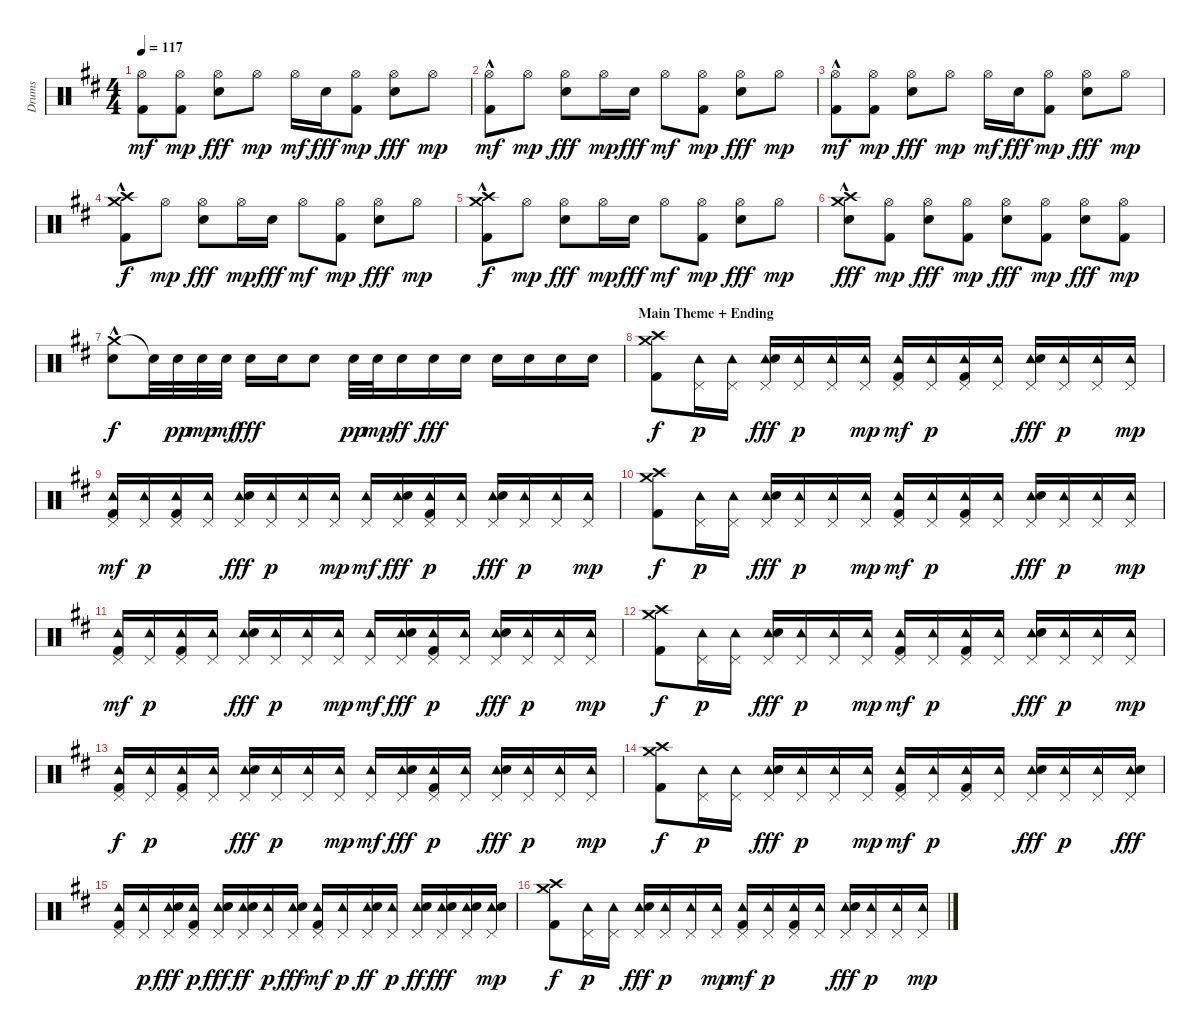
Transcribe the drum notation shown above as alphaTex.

\track ("Drums" "Drums") {instrument percussion}
\staff {score}
\articulation defaults
\ts (4 4)
\tempo 117
\clef neutral
\ks d
("Hi-Hat (open)" "Kick (hit) 2").8{dy mf} ("Hi-Hat (open)" "Kick (hit) 2").8{dy mp} ("Hi-Hat (open)" "Electric Snare (hit)").8{dy fff} "Hi-Hat (open)".8{dy mp} "Hi-Hat (open)".16{dy mf} "Electric Snare (hit)".16{dy fff} ("Hi-Hat (open)" "Kick (hit) 2").8{dy mp} ("Hi-Hat (open)" "Electric Snare (hit)").8{dy fff} "Hi-Hat (open)".8{dy mp} |
("Hi-Hat (open)" "Kick (hit) 2"{hac}).8{dy mf} "Hi-Hat (open)".8{dy mp} ("Hi-Hat (open)" "Electric Snare (hit)").8{dy fff} "Hi-Hat (open)".16{dy mp} "Electric Snare (hit)".16{dy fff} "Hi-Hat (open)".8{dy mf} ("Hi-Hat (open)" "Kick (hit) 2").8{dy mp} ("Hi-Hat (open)" "Electric Snare (hit)").8{dy fff} "Hi-Hat (open)".8{dy mp} |
("Hi-Hat (open)" "Kick (hit) 2"{hac}).8{dy mf} ("Hi-Hat (open)" "Kick (hit) 2").8{dy mp} ("Hi-Hat (open)" "Electric Snare (hit)").8{dy fff} "Hi-Hat (open)".8{dy mp} "Hi-Hat (open)".16{dy mf} "Electric Snare (hit)".16{dy fff} ("Hi-Hat (open)" "Kick (hit) 2").8{dy mp} ("Hi-Hat (open)" "Electric Snare (hit)").8{dy fff} "Hi-Hat (open)".8{dy mp} |
("Crash medium (hit)" "Crash high (hit)" "Kick (hit) 2"{hac}).8{dy f} "Hi-Hat (open)".8{dy mp} ("Hi-Hat (open)" "Electric Snare (hit)").8{dy fff} "Hi-Hat (open)".16{dy mp} "Electric Snare (hit)".16{dy fff} "Hi-Hat (open)".8{dy mf} ("Hi-Hat (open)" "Kick (hit) 2").8{dy mp} ("Hi-Hat (open)" "Electric Snare (hit)").8{dy fff} "Hi-Hat (open)".8{dy mp} |
("Crash medium (hit)" "Kick (hit) 2" "Crash high (hit)"{hac}).8{dy f} "Hi-Hat (open)".8{dy mp} ("Hi-Hat (open)" "Electric Snare (hit)").8{dy fff} "Hi-Hat (open)".16{dy mp} "Electric Snare (hit)".16{dy fff} "Hi-Hat (open)".8{dy mf} ("Hi-Hat (open)" "Kick (hit) 2").8{dy mp} ("Hi-Hat (open)" "Electric Snare (hit)").8{dy fff} "Hi-Hat (open)".8{dy mp} |
("Crash high (hit)" "Crash medium (hit)" "Electric Snare (hit)"{hac}).8{dy fff} ("Hi-Hat (open)" "Kick (hit) 2").8{dy mp} ("Hi-Hat (open)" "Electric Snare (hit)").8{dy fff} ("Hi-Hat (open)" "Kick (hit) 2").8{dy mp} ("Hi-Hat (open)" "Electric Snare (hit)").8{dy fff} ("Hi-Hat (open)" "Kick (hit) 2").8{dy mp} ("Hi-Hat (open)" "Electric Snare (hit)").8{dy fff} ("Hi-Hat (open)" "Kick (hit) 2").8{dy mp} |
("Crash medium (hit)" "Electric Snare (hit)"{hac}).8{dy f} "Snare (hit)"{t}.32 "Electric Snare (hit)".32{dy pp} "Electric Snare (hit)".32{dy mp} "Electric Snare (hit)".32{dy mf} "Electric Snare (hit)".16{dy fff} "Electric Snare (hit)".16 "Electric Snare (hit)".8 "Electric Snare (hit)".32{dy pp} "Electric Snare (hit)".32{dy mp} "Electric Snare (hit)".16{dy ff} "Electric Snare (hit)".16{dy fff} "Electric Snare (hit)".16 "Electric Snare (hit)".16 "Electric Snare (hit)".16 "Electric Snare (hit)".16 "Electric Snare (hit)".16 |
\section ("" "Main Theme + Ending")
("Crash medium (hit)" "Crash high (hit)" "Kick (hit) 2").8{dy f} ("Tambourine (hit)" "Pedal Hi-Hat (hit)").16{dy p} ("Tambourine (hit)" "Pedal Hi-Hat (hit)").16 ("Tambourine (hit)" "Pedal Hi-Hat (hit)" "Electric Snare (hit)").16{dy fff} ("Tambourine (hit)" "Pedal Hi-Hat (hit)").16{dy p} ("Tambourine (hit)" "Pedal Hi-Hat (hit)").16 ("Tambourine (hit)" "Pedal Hi-Hat (hit)").16{dy mp} ("Pedal Hi-Hat (hit)" "Tambourine (hit)" "Kick (hit) 2").16{dy mf} ("Tambourine (hit)" "Pedal Hi-Hat (hit)").16{dy p} ("Pedal Hi-Hat (hit)" "Tambourine (hit)" "Kick (hit) 2").16 ("Pedal Hi-Hat (hit)" "Tambourine (hit)").16 ("Tambourine (hit)" "Pedal Hi-Hat (hit)" "Electric Snare (hit)").16{dy fff} ("Pedal Hi-Hat (hit)" "Tambourine (hit)").16{dy p} ("Pedal Hi-Hat (hit)" "Tambourine (hit)").16 ("Tambourine (hit)" "Pedal Hi-Hat (hit)").16{dy mp} |
("Tambourine (hit)" "Pedal Hi-Hat (hit)" "Kick (hit) 2").16{dy mf} ("Tambourine (hit)" "Pedal Hi-Hat (hit)").16{dy p} ("Pedal Hi-Hat (hit)" "Tambourine (hit)" "Kick (hit) 2").16 ("Tambourine (hit)" "Pedal Hi-Hat (hit)").16 ("Pedal Hi-Hat (hit)" "Tambourine (hit)" "Electric Snare (hit)").16{dy fff} ("Pedal Hi-Hat (hit)" "Tambourine (hit)").16{dy p} ("Tambourine (hit)" "Pedal Hi-Hat (hit)").16 ("Tambourine (hit)" "Pedal Hi-Hat (hit)").16{dy mp} ("Pedal Hi-Hat (hit)" "Tambourine (hit)").16{dy mf} ("Pedal Hi-Hat (hit)" "Tambourine (hit)" "Electric Snare (hit)").16{dy fff} ("Tambourine (hit)" "Pedal Hi-Hat (hit)" "Kick (hit) 2").16{dy p} ("Tambourine (hit)" "Pedal Hi-Hat (hit)").16 ("Pedal Hi-Hat (hit)" "Tambourine (hit)" "Electric Snare (hit)").16{dy fff} ("Tambourine (hit)" "Pedal Hi-Hat (hit)").16{dy p} ("Tambourine (hit)" "Pedal Hi-Hat (hit)").16 ("Pedal Hi-Hat (hit)" "Tambourine (hit)").16{dy mp} |
("Crash high (hit)" "Crash medium (hit)" "Kick (hit) 2").8{dy f} ("Tambourine (hit)" "Pedal Hi-Hat (hit)").16{dy p} ("Pedal Hi-Hat (hit)" "Tambourine (hit)").16 ("Pedal Hi-Hat (hit)" "Tambourine (hit)" "Electric Snare (hit)").16{dy fff} ("Pedal Hi-Hat (hit)" "Tambourine (hit)").16{dy p} ("Pedal Hi-Hat (hit)" "Tambourine (hit)").16 ("Pedal Hi-Hat (hit)" "Tambourine (hit)").16{dy mp} ("Pedal Hi-Hat (hit)" "Tambourine (hit)" "Kick (hit) 2").16{dy mf} ("Pedal Hi-Hat (hit)" "Tambourine (hit)").16{dy p} ("Pedal Hi-Hat (hit)" "Tambourine (hit)" "Kick (hit) 2").16 ("Pedal Hi-Hat (hit)" "Tambourine (hit)").16 ("Pedal Hi-Hat (hit)" "Tambourine (hit)" "Electric Snare (hit)").16{dy fff} ("Tambourine (hit)" "Pedal Hi-Hat (hit)").16{dy p} ("Tambourine (hit)" "Pedal Hi-Hat (hit)").16 ("Pedal Hi-Hat (hit)" "Tambourine (hit)").16{dy mp} |
("Tambourine (hit)" "Pedal Hi-Hat (hit)" "Kick (hit) 2").16{dy mf} ("Tambourine (hit)" "Pedal Hi-Hat (hit)").16{dy p} ("Pedal Hi-Hat (hit)" "Tambourine (hit)" "Kick (hit) 2").16 ("Tambourine (hit)" "Pedal Hi-Hat (hit)").16 ("Tambourine (hit)" "Pedal Hi-Hat (hit)" "Electric Snare (hit)").16{dy fff} ("Pedal Hi-Hat (hit)" "Tambourine (hit)").16{dy p} ("Tambourine (hit)" "Pedal Hi-Hat (hit)").16 ("Pedal Hi-Hat (hit)" "Tambourine (hit)").16{dy mp} ("Tambourine (hit)" "Pedal Hi-Hat (hit)").16{dy mf} ("Pedal Hi-Hat (hit)" "Tambourine (hit)" "Electric Snare (hit)").16{dy fff} ("Pedal Hi-Hat (hit)" "Tambourine (hit)" "Kick (hit) 2").16{dy p} ("Tambourine (hit)" "Pedal Hi-Hat (hit)").16 ("Pedal Hi-Hat (hit)" "Tambourine (hit)" "Electric Snare (hit)").16{dy fff} ("Pedal Hi-Hat (hit)" "Tambourine (hit)").16{dy p} ("Tambourine (hit)" "Pedal Hi-Hat (hit)").16 ("Tambourine (hit)" "Pedal Hi-Hat (hit)").16{dy mp} |
("Crash medium (hit)" "Crash high (hit)" "Kick (hit) 2").8{dy f} ("Pedal Hi-Hat (hit)" "Tambourine (hit)").16{dy p} ("Pedal Hi-Hat (hit)" "Tambourine (hit)").16 ("Tambourine (hit)" "Pedal Hi-Hat (hit)" "Electric Snare (hit)").16{dy fff} ("Pedal Hi-Hat (hit)" "Tambourine (hit)").16{dy p} ("Pedal Hi-Hat (hit)" "Tambourine (hit)").16 ("Tambourine (hit)" "Pedal Hi-Hat (hit)").16{dy mp} ("Pedal Hi-Hat (hit)" "Tambourine (hit)" "Kick (hit) 2").16{dy mf} ("Pedal Hi-Hat (hit)" "Tambourine (hit)").16{dy p} ("Pedal Hi-Hat (hit)" "Tambourine (hit)" "Kick (hit) 2").16 ("Tambourine (hit)" "Pedal Hi-Hat (hit)").16 ("Pedal Hi-Hat (hit)" "Tambourine (hit)" "Electric Snare (hit)").16{dy fff} ("Tambourine (hit)" "Pedal Hi-Hat (hit)").16{dy p} ("Pedal Hi-Hat (hit)" "Tambourine (hit)").16 ("Pedal Hi-Hat (hit)" "Tambourine (hit)").16{dy mp} |
("Pedal Hi-Hat (hit)" "Tambourine (hit)" "Kick (hit) 2").16{dy f} ("Pedal Hi-Hat (hit)" "Tambourine (hit)").16{dy p} ("Tambourine (hit)" "Pedal Hi-Hat (hit)" "Kick (hit) 2").16 ("Tambourine (hit)" "Pedal Hi-Hat (hit)").16 ("Pedal Hi-Hat (hit)" "Tambourine (hit)" "Electric Snare (hit)").16{dy fff} ("Pedal Hi-Hat (hit)" "Tambourine (hit)").16{dy p} ("Pedal Hi-Hat (hit)" "Tambourine (hit)").16 ("Pedal Hi-Hat (hit)" "Tambourine (hit)").16{dy mp} ("Tambourine (hit)" "Pedal Hi-Hat (hit)").16{dy mf} ("Tambourine (hit)" "Pedal Hi-Hat (hit)" "Electric Snare (hit)").16{dy fff} ("Pedal Hi-Hat (hit)" "Tambourine (hit)" "Kick (hit) 2").16{dy p} ("Pedal Hi-Hat (hit)" "Tambourine (hit)").16 ("Tambourine (hit)" "Pedal Hi-Hat (hit)" "Electric Snare (hit)").16{dy fff} ("Pedal Hi-Hat (hit)" "Tambourine (hit)").16{dy p} ("Tambourine (hit)" "Pedal Hi-Hat (hit)").16 ("Tambourine (hit)" "Pedal Hi-Hat (hit)").16{dy mp} |
("Crash medium (hit)" "Crash high (hit)" "Kick (hit) 2").8{dy f} ("Pedal Hi-Hat (hit)" "Tambourine (hit)").16{dy p} ("Pedal Hi-Hat (hit)" "Tambourine (hit)").16 ("Tambourine (hit)" "Pedal Hi-Hat (hit)" "Electric Snare (hit)").16{dy fff} ("Pedal Hi-Hat (hit)" "Tambourine (hit)").16{dy p} ("Tambourine (hit)" "Pedal Hi-Hat (hit)").16 ("Tambourine (hit)" "Pedal Hi-Hat (hit)").16{dy mp} ("Pedal Hi-Hat (hit)" "Tambourine (hit)" "Kick (hit) 2").16{dy mf} ("Pedal Hi-Hat (hit)" "Tambourine (hit)").16{dy p} ("Pedal Hi-Hat (hit)" "Tambourine (hit)" "Kick (hit) 2").16 ("Pedal Hi-Hat (hit)" "Tambourine (hit)").16 ("Pedal Hi-Hat (hit)" "Tambourine (hit)" "Electric Snare (hit)").16{dy fff} ("Tambourine (hit)" "Pedal Hi-Hat (hit)").16{dy p} ("Pedal Hi-Hat (hit)" "Tambourine (hit)").16 ("Tambourine (hit)" "Pedal Hi-Hat (hit)" "Electric Snare (hit)").16{dy fff} |
("Tambourine (hit)" "Pedal Hi-Hat (hit)" "Kick (hit) 2").16 ("Pedal Hi-Hat (hit)" "Tambourine (hit)").16{dy p} ("Tambourine (hit)" "Pedal Hi-Hat (hit)" "Electric Snare (hit)").16{dy fff} ("Pedal Hi-Hat (hit)" "Tambourine (hit)" "Kick (hit) 2").16{dy p} ("Tambourine (hit)" "Pedal Hi-Hat (hit)" "Electric Snare (hit)").16{dy fff} ("Tambourine (hit)" "Pedal Hi-Hat (hit)" "Snare (hit) 2").16{dy ff} ("Pedal Hi-Hat (hit)" "Tambourine (hit)").16{dy p} ("Pedal Hi-Hat (hit)" "Tambourine (hit)" "Electric Snare (hit)").16{dy fff} ("Pedal Hi-Hat (hit)" "Tambourine (hit)" "Kick (hit) 2").16{dy mf} ("Tambourine (hit)" "Pedal Hi-Hat (hit)").16{dy p} ("Pedal Hi-Hat (hit)" "Tambourine (hit)" "Electric Snare (hit)").16{dy ff} ("Pedal Hi-Hat (hit)" "Tambourine (hit)").16{dy p} ("Pedal Hi-Hat (hit)" "Tambourine (hit)" "Electric Snare (hit)").16{dy ff} ("Tambourine (hit)" "Pedal Hi-Hat (hit)" "Electric Snare (hit)").16{dy fff} ("Pedal Hi-Hat (hit)" "Tambourine (hit)" "Electric Snare (hit)").16 ("Pedal Hi-Hat (hit)" "Tambourine (hit)" "Electric Snare (hit)").16{dy mp} |
("Crash high (hit)" "Crash medium (hit)" "Kick (hit) 2").8{dy f} ("Tambourine (hit)" "Pedal Hi-Hat (hit)").16{dy p} ("Tambourine (hit)" "Pedal Hi-Hat (hit)").16 ("Pedal Hi-Hat (hit)" "Tambourine (hit)" "Electric Snare (hit)").16{dy fff} ("Pedal Hi-Hat (hit)" "Tambourine (hit)").16{dy p} ("Tambourine (hit)" "Pedal Hi-Hat (hit)").16 ("Pedal Hi-Hat (hit)" "Tambourine (hit)").16{dy mp} ("Tambourine (hit)" "Pedal Hi-Hat (hit)" "Kick (hit) 2").16{dy mf} ("Pedal Hi-Hat (hit)" "Tambourine (hit)").16{dy p} ("Pedal Hi-Hat (hit)" "Tambourine (hit)" "Kick (hit) 2").16 ("Tambourine (hit)" "Pedal Hi-Hat (hit)").16 ("Tambourine (hit)" "Pedal Hi-Hat (hit)" "Electric Snare (hit)").16{dy fff} ("Tambourine (hit)" "Pedal Hi-Hat (hit)").16{dy p} ("Pedal Hi-Hat (hit)" "Tambourine (hit)").16 ("Pedal Hi-Hat (hit)" "Tambourine (hit)").16{dy mp}
